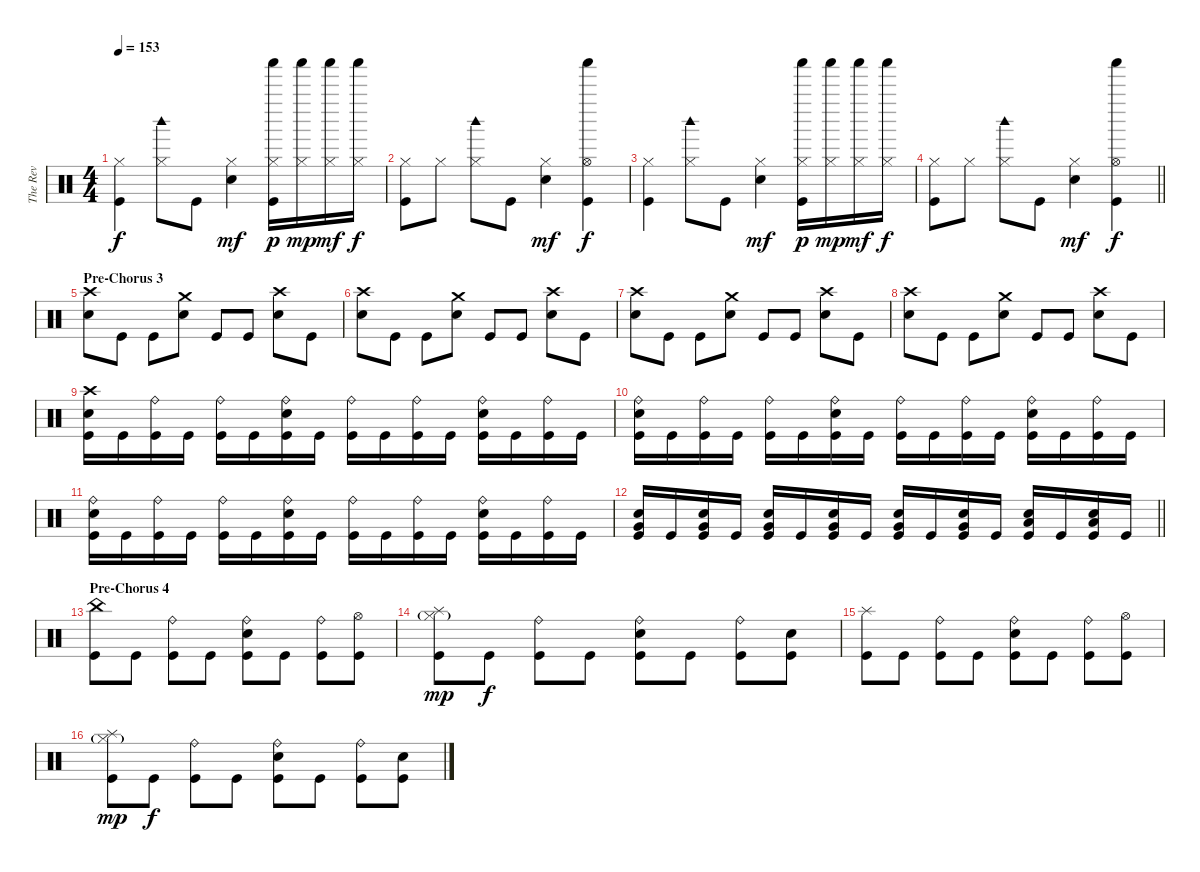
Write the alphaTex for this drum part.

\track ("The Rev" "The Rev") {instrument percussion}
\staff {score}
\articulation defaults
\ts (4 4)
\tempo 153
\clef neutral
\ks c
("Hi-Hat (closed)" "Kick (hit)").4{dy f} ("Hi-Hat (closed)" "Woodblock high (hit)").8 "Kick (hit)".8 ("Hi-Hat (closed)" "Electric Snare (hit)").4{dy mf} ("Hi-Hat (closed)" "Shaker (hit)" "Kick (hit)").16{dy p} ("Hi-Hat (closed)" "Shaker (hit)").16{dy mp} ("Hi-Hat (closed)" "Shaker (hit)").16{dy mf} ("Hi-Hat (closed)" "Shaker (hit)").16{dy f} |
("Hi-Hat (closed)" "Kick (hit)").8 "Hi-Hat (closed)".8 ("Hi-Hat (closed)" "Woodblock high (hit)").8 "Kick (hit)".8 ("Hi-Hat (closed)" "Electric Snare (hit)").4{dy mf} ("Hi-Hat (open)" "Shaker (hit)" "Kick (hit)").4{dy f} |
("Hi-Hat (closed)" "Kick (hit)").4 ("Hi-Hat (closed)" "Woodblock high (hit)").8 "Kick (hit)".8 ("Hi-Hat (closed)" "Electric Snare (hit)").4{dy mf} ("Hi-Hat (closed)" "Shaker (hit)" "Kick (hit)").16{dy p} ("Hi-Hat (closed)" "Shaker (hit)").16{dy mp} ("Hi-Hat (closed)" "Shaker (hit)").16{dy mf} ("Hi-Hat (closed)" "Shaker (hit)").16{dy f} |
\barLineRight lightlight
("Hi-Hat (closed)" "Kick (hit)").8 "Hi-Hat (closed)".8 ("Hi-Hat (closed)" "Woodblock high (hit)").8 "Kick (hit)".8 ("Hi-Hat (closed)" "Electric Snare (hit)").4{dy mf} ("Hi-Hat (open)" "Shaker (hit)" "Kick (hit)").4{dy f} |
\section ("" "Pre-Chorus 3")
("Crash high (hit)" "Electric Snare (hit)").8 "Kick (hit)".8 "Kick (hit)".8 ("Crash medium (hit)" "Electric Snare (hit)").8 "Kick (hit)".8 "Kick (hit)".8 ("Crash high (hit)" "Electric Snare (hit)").8 "Kick (hit)".8 |
("Crash high (hit)" "Electric Snare (hit)").8 "Kick (hit)".8 "Kick (hit)".8 ("Crash medium (hit)" "Electric Snare (hit)").8 "Kick (hit)".8 "Kick (hit)".8 ("Crash high (hit)" "Electric Snare (hit)").8 "Kick (hit)".8 |
("Crash high (hit)" "Electric Snare (hit)").8 "Kick (hit)".8 "Kick (hit)".8 ("Crash medium (hit)" "Electric Snare (hit)").8 "Kick (hit)".8 "Kick (hit)".8 ("Crash high (hit)" "Electric Snare (hit)").8 "Kick (hit)".8 |
("Crash high (hit)" "Electric Snare (hit)").8 "Kick (hit)".8 "Kick (hit)".8 ("Crash medium (hit)" "Electric Snare (hit)").8 "Kick (hit)".8 "Kick (hit)".8 ("Crash high (hit)" "Electric Snare (hit)").8 "Kick (hit)".8 |
("Crash high (hit)" "Electric Snare (hit)" "Kick (hit)").16 "Kick (hit)".16 ("Ride (bell)" "Kick (hit)").16 "Kick (hit)".16 ("Ride (bell)" "Kick (hit)").16 "Kick (hit)".16 ("Ride (bell)" "Electric Snare (hit)" "Kick (hit)").16 "Kick (hit)".16 ("Ride (bell)" "Kick (hit)").16 "Kick (hit)".16 ("Ride (bell)" "Kick (hit)").16 "Kick (hit)".16 ("Ride (bell)" "Electric Snare (hit)" "Kick (hit)").16 "Kick (hit)".16 ("Ride (bell)" "Kick (hit)").16 "Kick (hit)".16 |
("Ride (bell)" "Electric Snare (hit)" "Kick (hit)").16 "Kick (hit)".16 ("Ride (bell)" "Kick (hit)").16 "Kick (hit)".16 ("Ride (bell)" "Kick (hit)").16 "Kick (hit)".16 ("Ride (bell)" "Electric Snare (hit)" "Kick (hit)").16 "Kick (hit)".16 ("Ride (bell)" "Kick (hit)").16 "Kick (hit)".16 ("Ride (bell)" "Kick (hit)").16 "Kick (hit)".16 ("Ride (bell)" "Electric Snare (hit)" "Kick (hit)").16 "Kick (hit)".16 ("Ride (bell)" "Kick (hit)").16 "Kick (hit)".16 |
("Ride (bell)" "Electric Snare (hit)" "Kick (hit)").16 "Kick (hit)".16 ("Ride (bell)" "Kick (hit)").16 "Kick (hit)".16 ("Ride (bell)" "Kick (hit)").16 "Kick (hit)".16 ("Ride (bell)" "Electric Snare (hit)" "Kick (hit)").16 "Kick (hit)".16 ("Ride (bell)" "Kick (hit)").16 "Kick (hit)".16 ("Ride (bell)" "Kick (hit)").16 "Kick (hit)".16 ("Ride (bell)" "Electric Snare (hit)" "Kick (hit)").16 "Kick (hit)".16 ("Ride (bell)" "Kick (hit)").16 "Kick (hit)".16 |
\barLineRight lightlight
("Electric Snare (hit)" "Very Low Tom (hit)" "Kick (hit)").16 "Kick (hit)".16 ("Electric Snare (hit)" "Very Low Tom (hit)" "Kick (hit)").16 "Kick (hit)".16 ("Electric Snare (hit)" "Very Low Tom (hit)" "Kick (hit)").16 "Kick (hit)".16 ("Electric Snare (hit)" "Very Low Tom (hit)" "Kick (hit)").16 "Kick (hit)".16 ("Electric Snare (hit)" "Very Low Tom (hit)" "Kick (hit)").16 "Kick (hit)".16 ("Electric Snare (hit)" "Very Low Tom (hit)" "Kick (hit)").16 "Kick (hit)".16 ("Electric Snare (hit)" "Low Tom (hit)" "Kick (hit)").16 "Kick (hit)".16 ("Electric Snare (hit)" "Low Tom (hit)" "Kick (hit)").16 "Kick (hit)".16 |
\section ("" "Pre-Chorus 4")
("China (hit)" "Kick (hit)").8 "Kick (hit)".8 ("Ride (bell)" "Kick (hit)").8 "Kick (hit)".8 ("Ride (bell)" "Electric Snare (hit)" "Kick (hit)").8 "Kick (hit)".8 ("Ride (bell)" "Kick (hit)").8 ("Hi-Hat (open)" "Kick (hit)").8 |
("Splash (hit)" "Hi-Hat (closed)"{g} "Kick (hit)").8{dy mp} "Kick (hit)".8{dy f} ("Ride (bell)" "Kick (hit)").8 "Kick (hit)".8 ("Ride (bell)" "Electric Snare (hit)" "Kick (hit)").8 "Kick (hit)".8 ("Ride (bell)" "Kick (hit)").8 ("Electric Snare (hit)" "Kick (hit)").8 |
("Splash (hit)" "Kick (hit)").8 "Kick (hit)".8 ("Ride (bell)" "Kick (hit)").8 "Kick (hit)".8 ("Ride (bell)" "Electric Snare (hit)" "Kick (hit)").8 "Kick (hit)".8 ("Ride (bell)" "Kick (hit)").8 ("Hi-Hat (open)" "Kick (hit)").8 |
("Splash (hit)" "Hi-Hat (closed)"{g} "Kick (hit)").8{dy mp} "Kick (hit)".8{dy f} ("Ride (bell)" "Kick (hit)").8 "Kick (hit)".8 ("Ride (bell)" "Electric Snare (hit)" "Kick (hit)").8 "Kick (hit)".8 ("Ride (bell)" "Kick (hit)").8 ("Electric Snare (hit)" "Kick (hit)").8
